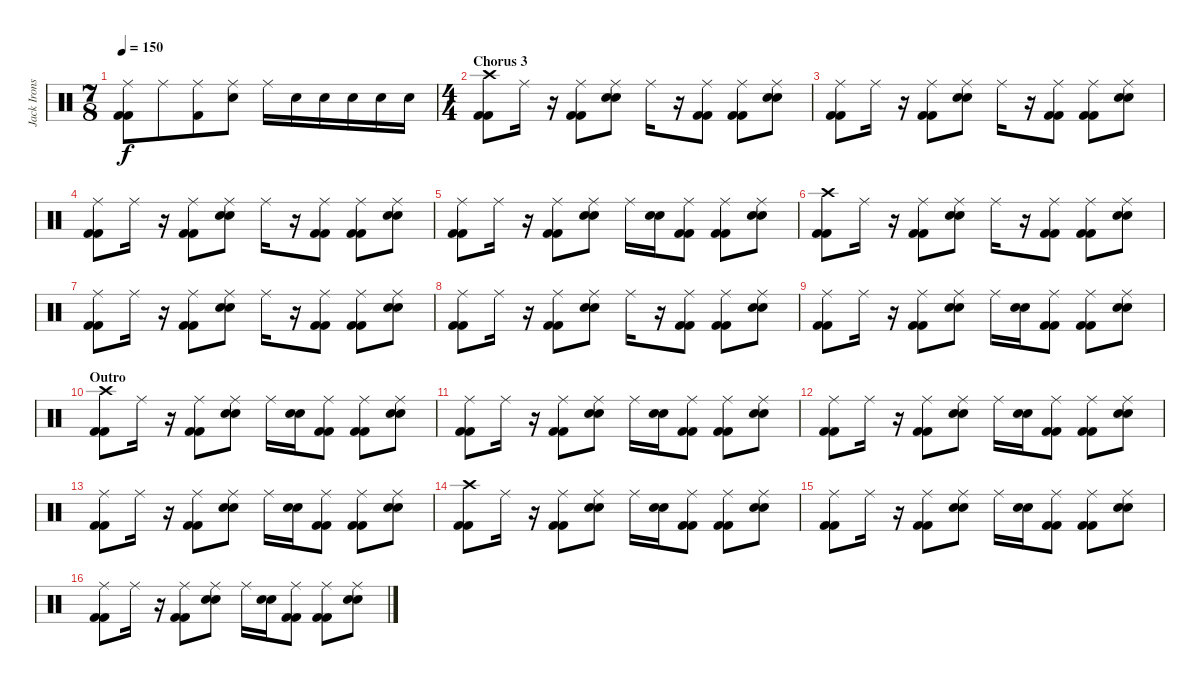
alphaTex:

\track ("Jack Irons" "Jack Irons") {instrument percussion}
\staff {score}
\articulation defaults
\ts (7 8)
\tempo 150
\clef neutral
\ks c
("Ride (middle)" "Kick (hit) 2" "Kick (hit) 2").8{dy f} "Ride (middle)".8 ("Ride (middle)" "Kick (hit) 2").8 ("Ride (middle)" "Electric Snare (hit)").8 "Ride (middle)".16 "Electric Snare (hit)".16 "Electric Snare (hit)".16 "Electric Snare (hit)".16 "Electric Snare (hit)".16 "Electric Snare (hit)".16 |
\ts (4 4)
\section ("" "Chorus 3")
("Crash high (hit)" "Kick (hit) 2" "Kick (hit) 2").8 "Ride (middle)".16 r.16 ("Ride (middle)" "Kick (hit) 2" "Kick (hit) 2").8 ("Ride (middle)" "Electric Snare (hit)" "Electric Snare (hit)").8 "Ride (middle)".16 r.16 ("Ride (middle)" "Kick (hit) 2" "Kick (hit) 2").8 ("Ride (middle)" "Kick (hit) 2" "Kick (hit) 2").8 ("Ride (middle)" "Electric Snare (hit)" "Electric Snare (hit)").8 |
("Ride (middle)" "Kick (hit) 2" "Kick (hit) 2").8 "Ride (middle)".16 r.16 ("Ride (middle)" "Kick (hit) 2" "Kick (hit) 2").8 ("Ride (middle)" "Electric Snare (hit)" "Electric Snare (hit)").8 "Ride (middle)".16 r.16 ("Ride (middle)" "Kick (hit) 2" "Kick (hit) 2").8 ("Ride (middle)" "Kick (hit) 2" "Kick (hit) 2").8 ("Ride (middle)" "Electric Snare (hit)" "Electric Snare (hit)").8 |
("Ride (middle)" "Kick (hit) 2" "Kick (hit) 2").8 "Ride (middle)".16 r.16 ("Ride (middle)" "Kick (hit) 2" "Kick (hit) 2").8 ("Ride (middle)" "Electric Snare (hit)" "Electric Snare (hit)").8 "Ride (middle)".16 r.16 ("Ride (middle)" "Kick (hit) 2" "Kick (hit) 2").8 ("Ride (middle)" "Kick (hit) 2" "Kick (hit) 2").8 ("Ride (middle)" "Electric Snare (hit)" "Electric Snare (hit)").8 |
("Ride (middle)" "Kick (hit) 2" "Kick (hit) 2").8 "Ride (middle)".16 r.16 ("Ride (middle)" "Kick (hit) 2" "Kick (hit) 2").8 ("Ride (middle)" "Electric Snare (hit)" "Electric Snare (hit)").8 "Ride (middle)".16 ("Electric Snare (hit)" "Electric Snare (hit)").16 ("Ride (middle)" "Kick (hit) 2" "Kick (hit) 2").8 ("Ride (middle)" "Kick (hit) 2" "Kick (hit) 2").8 ("Ride (middle)" "Electric Snare (hit)" "Electric Snare (hit)").8 |
("Crash high (hit)" "Kick (hit) 2" "Kick (hit) 2").8 "Ride (middle)".16 r.16 ("Ride (middle)" "Kick (hit) 2" "Kick (hit) 2").8 ("Ride (middle)" "Electric Snare (hit)" "Electric Snare (hit)").8 "Ride (middle)".16 r.16 ("Ride (middle)" "Kick (hit) 2" "Kick (hit) 2").8 ("Ride (middle)" "Kick (hit) 2" "Kick (hit) 2").8 ("Ride (middle)" "Electric Snare (hit)" "Electric Snare (hit)").8 |
("Ride (middle)" "Kick (hit) 2" "Kick (hit) 2").8 "Ride (middle)".16 r.16 ("Ride (middle)" "Kick (hit) 2" "Kick (hit) 2").8 ("Ride (middle)" "Electric Snare (hit)" "Electric Snare (hit)").8 "Ride (middle)".16 r.16 ("Ride (middle)" "Kick (hit) 2" "Kick (hit) 2").8 ("Ride (middle)" "Kick (hit) 2" "Kick (hit) 2").8 ("Ride (middle)" "Electric Snare (hit)" "Electric Snare (hit)").8 |
("Ride (middle)" "Kick (hit) 2" "Kick (hit) 2").8 "Ride (middle)".16 r.16 ("Ride (middle)" "Kick (hit) 2" "Kick (hit) 2").8 ("Ride (middle)" "Electric Snare (hit)" "Electric Snare (hit)").8 "Ride (middle)".16 r.16 ("Ride (middle)" "Kick (hit) 2" "Kick (hit) 2").8 ("Ride (middle)" "Kick (hit) 2" "Kick (hit) 2").8 ("Ride (middle)" "Electric Snare (hit)" "Electric Snare (hit)").8 |
("Ride (middle)" "Kick (hit) 2" "Kick (hit) 2").8 "Ride (middle)".16 r.16 ("Ride (middle)" "Kick (hit) 2" "Kick (hit) 2").8 ("Ride (middle)" "Electric Snare (hit)" "Electric Snare (hit)").8 "Ride (middle)".16 ("Electric Snare (hit)" "Electric Snare (hit)").16 ("Ride (middle)" "Kick (hit) 2" "Kick (hit) 2").8 ("Ride (middle)" "Kick (hit) 2" "Kick (hit) 2").8 ("Ride (middle)" "Electric Snare (hit)" "Electric Snare (hit)").8 |
\section ("" "Outro")
("Crash high (hit)" "Kick (hit) 2" "Kick (hit) 2").8 "Ride (middle)".16 r.16 ("Ride (middle)" "Kick (hit) 2" "Kick (hit) 2").8 ("Ride (middle)" "Electric Snare (hit)" "Electric Snare (hit)").8 "Ride (middle)".16 ("Electric Snare (hit)" "Electric Snare (hit)").16 ("Ride (middle)" "Kick (hit) 2" "Kick (hit) 2").8 ("Ride (middle)" "Kick (hit) 2" "Kick (hit) 2").8 ("Ride (middle)" "Electric Snare (hit)" "Electric Snare (hit)").8 |
("Ride (middle)" "Kick (hit) 2" "Kick (hit) 2").8 "Ride (middle)".16 r.16 ("Ride (middle)" "Kick (hit) 2" "Kick (hit) 2").8 ("Ride (middle)" "Electric Snare (hit)" "Electric Snare (hit)").8 "Ride (middle)".16 ("Electric Snare (hit)" "Electric Snare (hit)").16 ("Ride (middle)" "Kick (hit) 2" "Kick (hit) 2").8 ("Ride (middle)" "Kick (hit) 2" "Kick (hit) 2").8 ("Ride (middle)" "Electric Snare (hit)" "Electric Snare (hit)").8 |
("Ride (middle)" "Kick (hit) 2" "Kick (hit) 2").8 "Ride (middle)".16 r.16 ("Ride (middle)" "Kick (hit) 2" "Kick (hit) 2").8 ("Ride (middle)" "Electric Snare (hit)" "Electric Snare (hit)").8 "Ride (middle)".16 ("Electric Snare (hit)" "Electric Snare (hit)").16 ("Ride (middle)" "Kick (hit) 2" "Kick (hit) 2").8 ("Ride (middle)" "Kick (hit) 2" "Kick (hit) 2").8 ("Ride (middle)" "Electric Snare (hit)" "Electric Snare (hit)").8 |
("Ride (middle)" "Kick (hit) 2" "Kick (hit) 2").8 "Ride (middle)".16 r.16 ("Ride (middle)" "Kick (hit) 2" "Kick (hit) 2").8 ("Ride (middle)" "Electric Snare (hit)" "Electric Snare (hit)").8 "Ride (middle)".16 ("Electric Snare (hit)" "Electric Snare (hit)").16 ("Ride (middle)" "Kick (hit) 2" "Kick (hit) 2").8 ("Ride (middle)" "Kick (hit) 2" "Kick (hit) 2").8 ("Ride (middle)" "Electric Snare (hit)" "Electric Snare (hit)").8 |
("Crash high (hit)" "Kick (hit) 2" "Kick (hit) 2").8 "Ride (middle)".16 r.16 ("Ride (middle)" "Kick (hit) 2" "Kick (hit) 2").8 ("Ride (middle)" "Electric Snare (hit)" "Electric Snare (hit)").8 "Ride (middle)".16 ("Electric Snare (hit)" "Electric Snare (hit)").16 ("Ride (middle)" "Kick (hit) 2" "Kick (hit) 2").8 ("Ride (middle)" "Kick (hit) 2" "Kick (hit) 2").8 ("Ride (middle)" "Electric Snare (hit)" "Electric Snare (hit)").8 |
("Ride (middle)" "Kick (hit) 2" "Kick (hit) 2").8 "Ride (middle)".16 r.16 ("Ride (middle)" "Kick (hit) 2" "Kick (hit) 2").8 ("Ride (middle)" "Electric Snare (hit)" "Electric Snare (hit)").8 "Ride (middle)".16 ("Electric Snare (hit)" "Electric Snare (hit)").16 ("Ride (middle)" "Kick (hit) 2" "Kick (hit) 2").8 ("Ride (middle)" "Kick (hit) 2" "Kick (hit) 2").8 ("Ride (middle)" "Electric Snare (hit)" "Electric Snare (hit)").8 |
("Ride (middle)" "Kick (hit) 2" "Kick (hit) 2").8 "Ride (middle)".16 r.16 ("Ride (middle)" "Kick (hit) 2" "Kick (hit) 2").8 ("Ride (middle)" "Electric Snare (hit)" "Electric Snare (hit)").8 "Ride (middle)".16 ("Electric Snare (hit)" "Electric Snare (hit)").16 ("Ride (middle)" "Kick (hit) 2" "Kick (hit) 2").8 ("Ride (middle)" "Kick (hit) 2" "Kick (hit) 2").8 ("Ride (middle)" "Electric Snare (hit)" "Electric Snare (hit)").8
